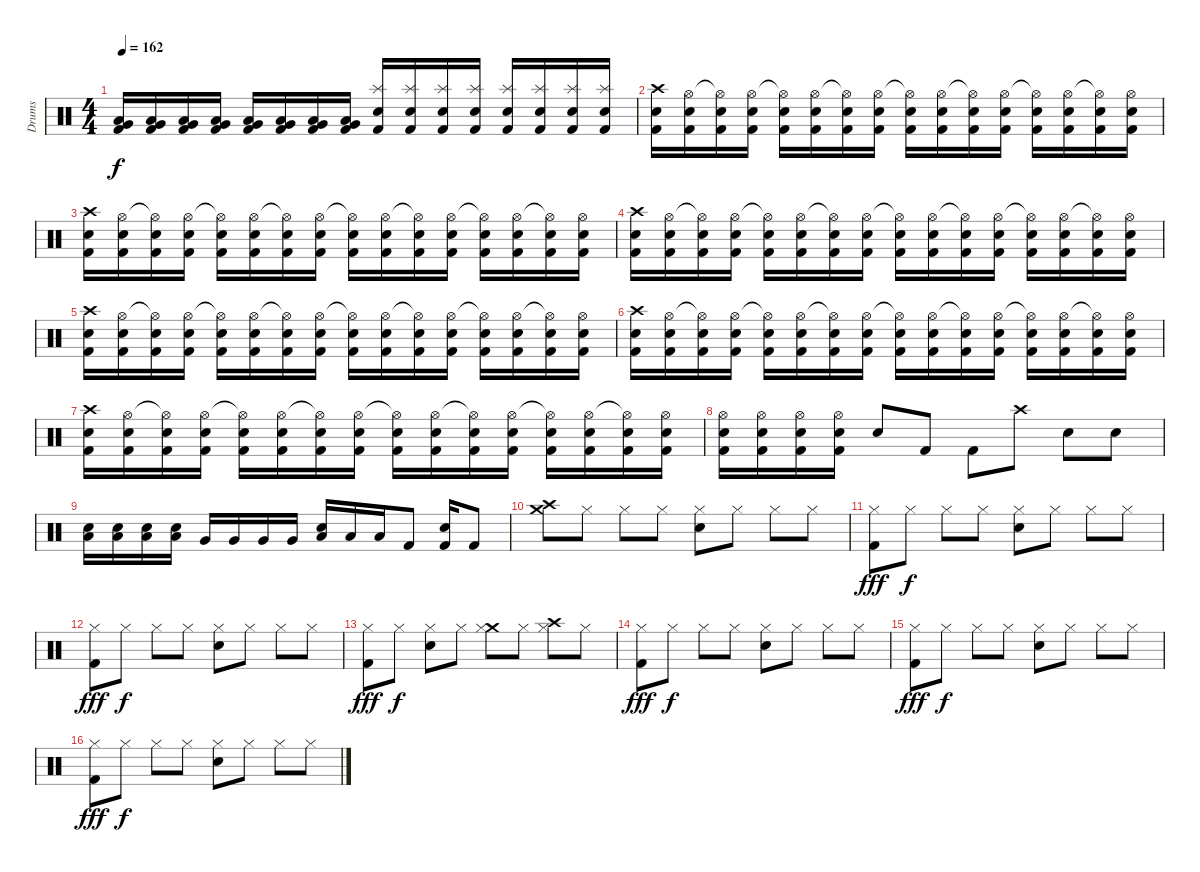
\track ("Drums" "Drums") {instrument percussion}
\staff {score}
\articulation defaults
\ts (4 4)
\tempo 162
\clef neutral
\ks c
("Low Tom (hit)" "Very Low Tom (hit)" "Kick (hit) 2").16{dy f} ("Low Tom (hit)" "Very Low Tom (hit)" "Kick (hit) 2").16 ("Low Tom (hit)" "Very Low Tom (hit)" "Kick (hit) 2").16 ("Low Tom (hit)" "Very Low Tom (hit)" "Kick (hit) 2").16 ("Low Tom (hit)" "Very Low Tom (hit)" "Kick (hit) 2").16 ("Low Tom (hit)" "Very Low Tom (hit)" "Kick (hit) 2").16 ("Low Tom (hit)" "Very Low Tom (hit)" "Kick (hit) 2").16 ("Low Tom (hit)" "Very Low Tom (hit)" "Kick (hit) 2").16 ("Splash (hit)" "Electric Snare (hit)" "Kick (hit) 2").16 ("Splash (hit)" "Electric Snare (hit)" "Kick (hit) 2").16 ("Splash (hit)" "Electric Snare (hit)" "Kick (hit) 2").16 ("Splash (hit)" "Electric Snare (hit)" "Kick (hit) 2").16 ("Splash (hit)" "Electric Snare (hit)" "Kick (hit) 2").16 ("Splash (hit)" "Electric Snare (hit)" "Kick (hit) 2").16 ("Splash (hit)" "Electric Snare (hit)" "Kick (hit) 2").16 ("Splash (hit)" "Electric Snare (hit)" "Kick (hit) 2").16 |
("Crash high (hit)" "Electric Snare (hit)" "Kick (hit) 2").16 ("Hi-Hat (open)" "Electric Snare (hit)" "Kick (hit) 2").16 ("Hi-Hat (open)"{t} "Electric Snare (hit)" "Kick (hit) 2").16 ("Hi-Hat (open)" "Electric Snare (hit)" "Kick (hit) 2").16 ("Hi-Hat (open)"{t} "Electric Snare (hit)" "Kick (hit) 2").16 ("Hi-Hat (open)" "Electric Snare (hit)" "Kick (hit) 2").16 ("Hi-Hat (open)"{t} "Electric Snare (hit)" "Kick (hit) 2").16 ("Hi-Hat (open)" "Electric Snare (hit)" "Kick (hit) 2").16 ("Hi-Hat (open)"{t} "Electric Snare (hit)" "Kick (hit) 2").16 ("Hi-Hat (open)" "Electric Snare (hit)" "Kick (hit) 2").16 ("Hi-Hat (open)"{t} "Electric Snare (hit)" "Kick (hit) 2").16 ("Hi-Hat (open)" "Electric Snare (hit)" "Kick (hit) 2").16 ("Hi-Hat (open)"{t} "Electric Snare (hit)" "Kick (hit) 2").16 ("Hi-Hat (open)" "Electric Snare (hit)" "Kick (hit) 2").16 ("Hi-Hat (open)"{t} "Electric Snare (hit)" "Kick (hit) 2").16 ("Hi-Hat (open)" "Electric Snare (hit)" "Kick (hit) 2").16 |
("Crash high (hit)" "Electric Snare (hit)" "Kick (hit) 2").16 ("Hi-Hat (open)" "Electric Snare (hit)" "Kick (hit) 2").16 ("Hi-Hat (open)"{t} "Electric Snare (hit)" "Kick (hit) 2").16 ("Hi-Hat (open)" "Electric Snare (hit)" "Kick (hit) 2").16 ("Hi-Hat (open)"{t} "Electric Snare (hit)" "Kick (hit) 2").16 ("Hi-Hat (open)" "Electric Snare (hit)" "Kick (hit) 2").16 ("Hi-Hat (open)"{t} "Electric Snare (hit)" "Kick (hit) 2").16 ("Hi-Hat (open)" "Electric Snare (hit)" "Kick (hit) 2").16 ("Hi-Hat (open)"{t} "Electric Snare (hit)" "Kick (hit) 2").16 ("Hi-Hat (open)" "Electric Snare (hit)" "Kick (hit) 2").16 ("Hi-Hat (open)"{t} "Electric Snare (hit)" "Kick (hit) 2").16 ("Hi-Hat (open)" "Electric Snare (hit)" "Kick (hit) 2").16 ("Hi-Hat (open)"{t} "Electric Snare (hit)" "Kick (hit) 2").16 ("Hi-Hat (open)" "Electric Snare (hit)" "Kick (hit) 2").16 ("Hi-Hat (open)"{t} "Electric Snare (hit)" "Kick (hit) 2").16 ("Hi-Hat (open)" "Electric Snare (hit)" "Kick (hit) 2").16 |
("Crash high (hit)" "Electric Snare (hit)" "Kick (hit) 2").16 ("Hi-Hat (open)" "Electric Snare (hit)" "Kick (hit) 2").16 ("Hi-Hat (open)"{t} "Electric Snare (hit)" "Kick (hit) 2").16 ("Hi-Hat (open)" "Electric Snare (hit)" "Kick (hit) 2").16 ("Hi-Hat (open)"{t} "Electric Snare (hit)" "Kick (hit) 2").16 ("Hi-Hat (open)" "Electric Snare (hit)" "Kick (hit) 2").16 ("Hi-Hat (open)"{t} "Electric Snare (hit)" "Kick (hit) 2").16 ("Hi-Hat (open)" "Electric Snare (hit)" "Kick (hit) 2").16 ("Hi-Hat (open)"{t} "Electric Snare (hit)" "Kick (hit) 2").16 ("Hi-Hat (open)" "Electric Snare (hit)" "Kick (hit) 2").16 ("Hi-Hat (open)"{t} "Electric Snare (hit)" "Kick (hit) 2").16 ("Hi-Hat (open)" "Electric Snare (hit)" "Kick (hit) 2").16 ("Hi-Hat (open)"{t} "Electric Snare (hit)" "Kick (hit) 2").16 ("Hi-Hat (open)" "Electric Snare (hit)" "Kick (hit) 2").16 ("Hi-Hat (open)"{t} "Electric Snare (hit)" "Kick (hit) 2").16 ("Hi-Hat (open)" "Electric Snare (hit)" "Kick (hit) 2").16 |
("Crash high (hit)" "Electric Snare (hit)" "Kick (hit) 2").16 ("Hi-Hat (open)" "Electric Snare (hit)" "Kick (hit) 2").16 ("Hi-Hat (open)"{t} "Electric Snare (hit)" "Kick (hit) 2").16 ("Hi-Hat (open)" "Electric Snare (hit)" "Kick (hit) 2").16 ("Hi-Hat (open)"{t} "Electric Snare (hit)" "Kick (hit) 2").16 ("Hi-Hat (open)" "Electric Snare (hit)" "Kick (hit) 2").16 ("Hi-Hat (open)"{t} "Electric Snare (hit)" "Kick (hit) 2").16 ("Hi-Hat (open)" "Electric Snare (hit)" "Kick (hit) 2").16 ("Hi-Hat (open)"{t} "Electric Snare (hit)" "Kick (hit) 2").16 ("Hi-Hat (open)" "Electric Snare (hit)" "Kick (hit) 2").16 ("Hi-Hat (open)"{t} "Electric Snare (hit)" "Kick (hit) 2").16 ("Hi-Hat (open)" "Electric Snare (hit)" "Kick (hit) 2").16 ("Hi-Hat (open)"{t} "Electric Snare (hit)" "Kick (hit) 2").16 ("Hi-Hat (open)" "Electric Snare (hit)" "Kick (hit) 2").16 ("Hi-Hat (open)"{t} "Electric Snare (hit)" "Kick (hit) 2").16 ("Hi-Hat (open)" "Electric Snare (hit)" "Kick (hit) 2").16 |
("Crash high (hit)" "Electric Snare (hit)" "Kick (hit) 2").16 ("Hi-Hat (open)" "Electric Snare (hit)" "Kick (hit) 2").16 ("Hi-Hat (open)"{t} "Electric Snare (hit)" "Kick (hit) 2").16 ("Hi-Hat (open)" "Electric Snare (hit)" "Kick (hit) 2").16 ("Hi-Hat (open)"{t} "Electric Snare (hit)" "Kick (hit) 2").16 ("Hi-Hat (open)" "Electric Snare (hit)" "Kick (hit) 2").16 ("Hi-Hat (open)"{t} "Electric Snare (hit)" "Kick (hit) 2").16 ("Hi-Hat (open)" "Electric Snare (hit)" "Kick (hit) 2").16 ("Hi-Hat (open)"{t} "Electric Snare (hit)" "Kick (hit) 2").16 ("Hi-Hat (open)" "Electric Snare (hit)" "Kick (hit) 2").16 ("Hi-Hat (open)"{t} "Electric Snare (hit)" "Kick (hit) 2").16 ("Hi-Hat (open)" "Electric Snare (hit)" "Kick (hit) 2").16 ("Hi-Hat (open)"{t} "Electric Snare (hit)" "Kick (hit) 2").16 ("Hi-Hat (open)" "Electric Snare (hit)" "Kick (hit) 2").16 ("Hi-Hat (open)"{t} "Electric Snare (hit)" "Kick (hit) 2").16 ("Hi-Hat (open)" "Electric Snare (hit)" "Kick (hit) 2").16 |
("Crash high (hit)" "Electric Snare (hit)" "Kick (hit) 2").16 ("Hi-Hat (open)" "Electric Snare (hit)" "Kick (hit) 2").16 ("Hi-Hat (open)"{t} "Electric Snare (hit)" "Kick (hit) 2").16 ("Hi-Hat (open)" "Electric Snare (hit)" "Kick (hit) 2").16 ("Hi-Hat (open)"{t} "Electric Snare (hit)" "Kick (hit) 2").16 ("Hi-Hat (open)" "Electric Snare (hit)" "Kick (hit) 2").16 ("Hi-Hat (open)"{t} "Electric Snare (hit)" "Kick (hit) 2").16 ("Hi-Hat (open)" "Electric Snare (hit)" "Kick (hit) 2").16 ("Hi-Hat (open)"{t} "Electric Snare (hit)" "Kick (hit) 2").16 ("Hi-Hat (open)" "Electric Snare (hit)" "Kick (hit) 2").16 ("Hi-Hat (open)"{t} "Electric Snare (hit)" "Kick (hit) 2").16 ("Hi-Hat (open)" "Electric Snare (hit)" "Kick (hit) 2").16 ("Hi-Hat (open)"{t} "Electric Snare (hit)" "Kick (hit) 2").16 ("Hi-Hat (open)" "Electric Snare (hit)" "Kick (hit) 2").16 ("Hi-Hat (open)"{t} "Electric Snare (hit)" "Kick (hit) 2").16 ("Hi-Hat (open)" "Electric Snare (hit)" "Kick (hit) 2").16 |
("Hi-Hat (open)" "Electric Snare (hit)" "Kick (hit) 2").16 ("Hi-Hat (open)" "Electric Snare (hit)" "Kick (hit) 2").16 ("Hi-Hat (open)" "Electric Snare (hit)" "Kick (hit) 2").16 ("Hi-Hat (open)" "Electric Snare (hit)" "Kick (hit) 2").16 "Electric Snare (hit)".8 "Kick (hit) 2".8 "Kick (hit) 2".8 "Crash high (hit)".8 "Electric Snare (hit)".8 "Electric Snare (hit)".8 |
("Electric Snare (hit)" "Low Tom (hit)").16 ("Electric Snare (hit)" "Low Tom (hit)").16 ("Electric Snare (hit)" "Low Tom (hit)").16 ("Electric Snare (hit)" "Low Tom (hit)").16 "Very Low Tom (hit)".16 "Very Low Tom (hit)".16 "Very Low Tom (hit)".16 "Very Low Tom (hit)".16 ("Electric Snare (hit)" "Low Floor Tom (hit)").16 "Low Floor Tom (hit)".16 "Low Floor Tom (hit)".16 "Kick (hit) 2".8 ("Electric Snare (hit)" "Kick (hit) 2").16 "Kick (hit) 2".8 |
("Crash medium (hit)" "Crash high (hit)").8 "Hi-Hat (closed)".8 "Hi-Hat (closed)".8 "Hi-Hat (closed)".8 ("Electric Snare (hit)" "Hi-Hat (closed)").8 "Hi-Hat (closed)".8 "Hi-Hat (closed)".8 "Hi-Hat (closed)".8 |
("Hi-Hat (closed)" "Kick (hit) 2").8{dy fff} "Hi-Hat (closed)".8{dy f} "Hi-Hat (closed)".8 "Hi-Hat (closed)".8 ("Electric Snare (hit)" "Hi-Hat (closed)").8 "Hi-Hat (closed)".8 "Hi-Hat (closed)".8 "Hi-Hat (closed)".8 |
("Hi-Hat (closed)" "Kick (hit) 2").8{dy fff} "Hi-Hat (closed)".8{dy f} "Hi-Hat (closed)".8 "Hi-Hat (closed)".8 ("Electric Snare (hit)" "Hi-Hat (closed)").8 "Hi-Hat (closed)".8 "Hi-Hat (closed)".8 "Hi-Hat (closed)".8 |
("Hi-Hat (closed)" "Kick (hit) 2").8{dy fff} "Hi-Hat (closed)".8{dy f} ("Electric Snare (hit)" "Hi-Hat (closed)").8 "Hi-Hat (closed)".8 ("Crash medium (hit)" "Hi-Hat (closed)").8 "Hi-Hat (closed)".8 ("Crash high (hit)" "Hi-Hat (closed)").8 "Hi-Hat (closed)".8 |
("Hi-Hat (closed)" "Kick (hit) 2").8{dy fff} "Hi-Hat (closed)".8{dy f} "Hi-Hat (closed)".8 "Hi-Hat (closed)".8 ("Electric Snare (hit)" "Hi-Hat (closed)").8 "Hi-Hat (closed)".8 "Hi-Hat (closed)".8 "Hi-Hat (closed)".8 |
("Hi-Hat (closed)" "Kick (hit) 2").8{dy fff} "Hi-Hat (closed)".8{dy f} "Hi-Hat (closed)".8 "Hi-Hat (closed)".8 ("Electric Snare (hit)" "Hi-Hat (closed)").8 "Hi-Hat (closed)".8 "Hi-Hat (closed)".8 "Hi-Hat (closed)".8 |
("Hi-Hat (closed)" "Kick (hit) 2").8{dy fff} "Hi-Hat (closed)".8{dy f} "Hi-Hat (closed)".8 "Hi-Hat (closed)".8 ("Electric Snare (hit)" "Hi-Hat (closed)").8 "Hi-Hat (closed)".8 "Hi-Hat (closed)".8 "Hi-Hat (closed)".8
